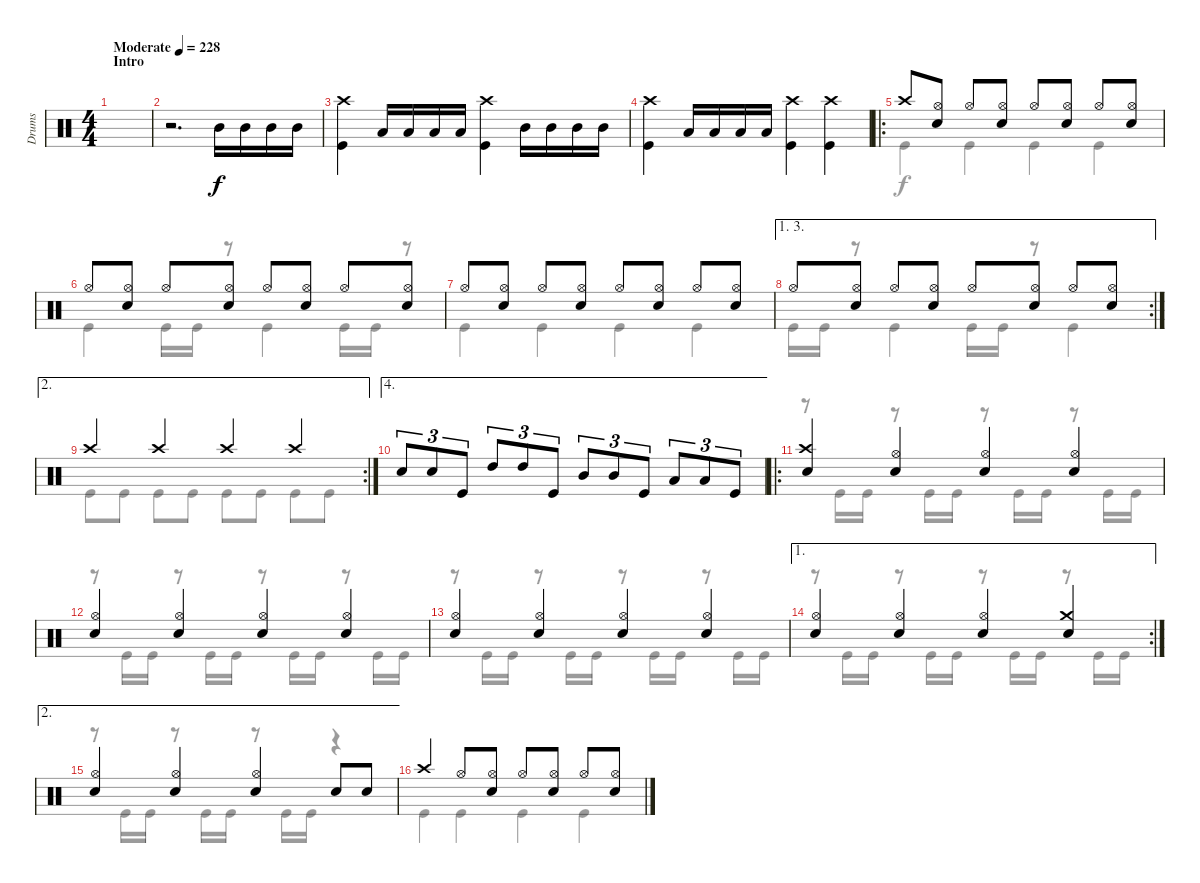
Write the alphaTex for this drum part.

\track ("Drums" "Drums") {instrument percussion}
\staff {score}
\articulation defaults
\voice
\ts (4 4)
\section ("" "Intro")
\tempo (228 "Moderate")
\clef neutral
\ks c
|
r.2{d} "Mid Tom (hit)".16 "Mid Tom (hit)".16 "Mid Tom (hit)".16 "Mid Tom (hit)".16 |
("Crash high (hit)" "Kick (hit)").4 "Low Floor Tom (hit)".16 "Low Floor Tom (hit)".16 "Low Floor Tom (hit)".16 "Low Floor Tom (hit)".16 ("Crash high (hit)" "Kick (hit)").4 "Mid Tom (hit)".16 "Mid Tom (hit)".16 "Mid Tom (hit)".16 "Mid Tom (hit)".16 |
("Crash high (hit)" "Kick (hit)").4 "Low Floor Tom (hit)".16 "Low Floor Tom (hit)".16 "Low Floor Tom (hit)".16 "Low Floor Tom (hit)".16 ("Crash high (hit)" "Kick (hit)").4 ("Crash high (hit)" "Kick (hit)").4 |
\ro "Crash high (hit)".8
("Hi-Hat (open)" "Snare (hit) 2").8 "Hi-Hat (open)".8 ("Hi-Hat (open)" "Snare (hit) 2").8 "Hi-Hat (open)".8 ("Hi-Hat (open)" "Snare (hit) 2").8 "Hi-Hat (open)".8 ("Hi-Hat (open)" "Snare (hit) 2").8 |
"Hi-Hat (open)".8 ("Hi-Hat (open)" "Snare (hit) 2").8 "Hi-Hat (open)".8 ("Hi-Hat (open)" "Snare (hit) 2").8 "Hi-Hat (open)".8 ("Hi-Hat (open)" "Snare (hit) 2").8 "Hi-Hat (open)".8 ("Hi-Hat (open)" "Snare (hit) 2").8 |
"Hi-Hat (open)".8 ("Hi-Hat (open)" "Snare (hit) 2").8 "Hi-Hat (open)".8 ("Hi-Hat (open)" "Snare (hit) 2").8 "Hi-Hat (open)".8 ("Hi-Hat (open)" "Snare (hit) 2").8 "Hi-Hat (open)".8 ("Hi-Hat (open)" "Snare (hit) 2").8 |
\ae (1 3)
\rc 2 "Hi-Hat (open)".8
("Hi-Hat (open)" "Snare (hit) 2").8 "Hi-Hat (open)".8 ("Hi-Hat (open)" "Snare (hit) 2").8 "Hi-Hat (open)".8 ("Hi-Hat (open)" "Snare (hit) 2").8 "Hi-Hat (open)".8 ("Hi-Hat (open)" "Snare (hit) 2").8 |
\ae 2
\rc 2 "Crash high (hit)".4 "Crash high (hit)".4 "Crash high (hit)".4 "Crash high (hit)".4
|
\ae 4 "Snare (hit) 2".8{tu (3 2)} "Snare (hit) 2".8{tu (3 2)} "Kick (hit)".8{tu (3 2)} "High Tom (hit)".8{tu (3 2)} "High Tom (hit)".8{tu (3 2)} "Kick (hit)".8{tu (3 2)} "Mid Tom (hit)".8{tu (3 2)} "Mid Tom (hit)".8{tu (3 2)} "Kick (hit)".8{tu (3 2)} "Low Floor Tom (hit)".8{tu (3 2)} "Low Floor Tom (hit)".8{tu (3 2)} "Kick (hit)".8{tu (3 2)}
|
\ro
("Crash high (hit)" "Snare (hit) 2").4 ("Hi-Hat (open)" "Snare (hit) 2").4 ("Hi-Hat (open)" "Snare (hit) 2").4 ("Hi-Hat (open)" "Snare (hit) 2").4 |
("Hi-Hat (open)" "Snare (hit) 2").4 ("Hi-Hat (open)" "Snare (hit) 2").4 ("Hi-Hat (open)" "Snare (hit) 2").4 ("Hi-Hat (open)" "Snare (hit) 2").4 |
("Hi-Hat (open)" "Snare (hit) 2").4 ("Hi-Hat (open)" "Snare (hit) 2").4 ("Hi-Hat (open)" "Snare (hit) 2").4 ("Hi-Hat (open)" "Snare (hit) 2").4 |
\ae 1
\rc 2
("Hi-Hat (open)" "Snare (hit) 2").4 ("Hi-Hat (open)" "Snare (hit) 2").4 ("Hi-Hat (open)" "Snare (hit) 2").4 ("Crash medium (hit)" "Snare (hit) 2").4 |
\ae 2
("Hi-Hat (open)" "Snare (hit) 2").4 ("Hi-Hat (open)" "Snare (hit) 2").4 ("Hi-Hat (open)" "Snare (hit) 2").4 "Snare (hit) 2".8 "Snare (hit) 2".8 |
"Crash high (hit)".4 "Hi-Hat (open)".8 ("Hi-Hat (open)" "Snare (hit) 2").8 "Hi-Hat (open)".8 ("Hi-Hat (open)" "Snare (hit) 2").8 "Hi-Hat (open)".8 ("Hi-Hat (open)" "Snare (hit) 2").8
\voice
\clef neutral
\ottava regular
\simile none
\ks c
|
|
|
|
"Kick (hit)".4 "Kick (hit)".4 "Kick (hit)".4 "Kick (hit)".4 |
"Kick (hit)".4 "Kick (hit)".16 "Kick (hit)".16 r.8 "Kick (hit)".4 "Kick (hit)".16 "Kick (hit)".16 r.8 |
"Kick (hit)".4 "Kick (hit)".4 "Kick (hit)".4 "Kick (hit)".4 |
"Kick (hit)".16 "Kick (hit)".16 r.8 "Kick (hit)".4 "Kick (hit)".16 "Kick (hit)".16 r.8 "Kick (hit)".4 |
"Kick (hit)".8 "Kick (hit)".8 "Kick (hit)".8 "Kick (hit)".8 "Kick (hit)".8 "Kick (hit)".8 "Kick (hit)".8 "Kick (hit)".8 |
|
r.8 "Kick (hit)".16 "Kick (hit)".16 r.8 "Kick (hit)".16 "Kick (hit)".16 r.8 "Kick (hit)".16 "Kick (hit)".16 r.8 "Kick (hit)".16 "Kick (hit)".16 |
r.8 "Kick (hit)".16 "Kick (hit)".16 r.8 "Kick (hit)".16 "Kick (hit)".16 r.8 "Kick (hit)".16 "Kick (hit)".16 r.8 "Kick (hit)".16 "Kick (hit)".16 |
r.8 "Kick (hit)".16 "Kick (hit)".16 r.8 "Kick (hit)".16 "Kick (hit)".16 r.8 "Kick (hit)".16 "Kick (hit)".16 r.8 "Kick (hit)".16 "Kick (hit)".16 |
r.8 "Kick (hit)".16 "Kick (hit)".16 r.8 "Kick (hit)".16 "Kick (hit)".16 r.8 "Kick (hit)".16 "Kick (hit)".16 r.8 "Kick (hit)".16 "Kick (hit)".16 |
r.8 "Kick (hit)".16 "Kick (hit)".16 r.8 "Kick (hit)".16 "Kick (hit)".16 r.8 "Kick (hit)".16 "Kick (hit)".16 r.4 |
"Kick (hit)".4 "Kick (hit)".4 "Kick (hit)".4 "Kick (hit)".4
